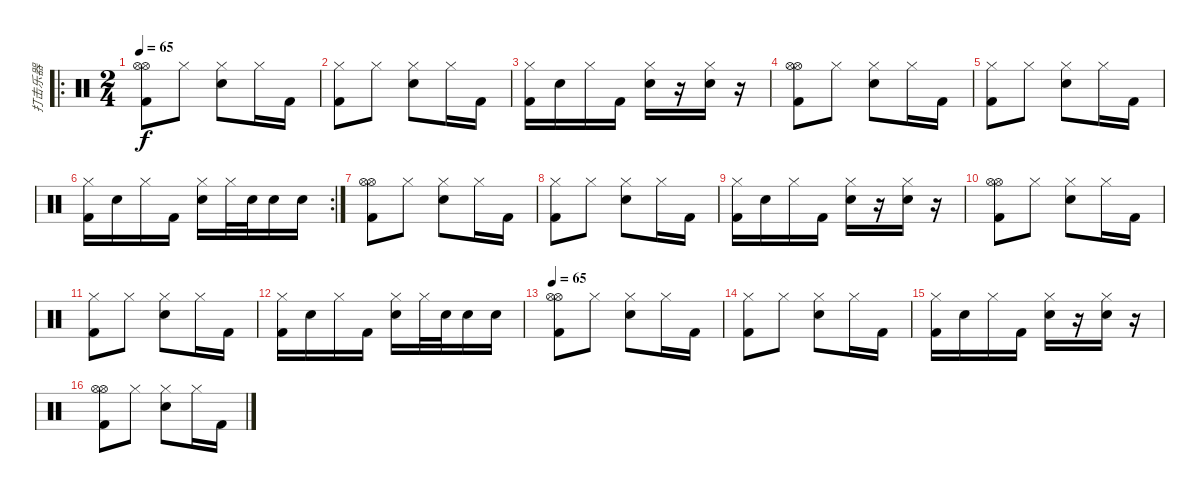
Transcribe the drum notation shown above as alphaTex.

\track ("打击乐器" "打击乐器") {instrument percussion}
\staff {score}
\articulation defaults
\ro
\ts (2 4)
\tempo 65
\clef neutral
\ks c
("Hi-Hat (open)" "Hi-Hat (open)" "Kick (hit) 2").8{dy f} "Hi-Hat (closed)".8 ("Hi-Hat (closed)" "Snare (hit) 2").8 "Hi-Hat (closed)".16 "Kick (hit) 2".16 |
("Hi-Hat (closed)" "Kick (hit) 2").8 "Hi-Hat (closed)".8 ("Hi-Hat (closed)" "Snare (hit) 2").8 "Hi-Hat (closed)".16 "Kick (hit) 2".16 |
("Hi-Hat (closed)" "Kick (hit) 2").16 "Snare (hit) 2".16 "Hi-Hat (closed)".16 "Kick (hit) 2".16 ("Hi-Hat (closed)" "Snare (hit) 2").16 r.16 ("Hi-Hat (closed)" "Snare (hit) 2").16 r.16 |
("Hi-Hat (open)" "Hi-Hat (open)" "Kick (hit) 2").8 "Hi-Hat (closed)".8 ("Hi-Hat (closed)" "Snare (hit) 2").8 "Hi-Hat (closed)".16 "Kick (hit) 2".16 |
("Hi-Hat (closed)" "Kick (hit) 2").8 "Hi-Hat (closed)".8 ("Hi-Hat (closed)" "Snare (hit) 2").8 "Hi-Hat (closed)".16 "Kick (hit) 2".16 |
\rc 2
("Hi-Hat (closed)" "Kick (hit) 2").16 "Snare (hit) 2".16 "Hi-Hat (closed)".16 "Kick (hit) 2".16 ("Hi-Hat (closed)" "Snare (hit) 2").16 "Hi-Hat (closed)".32 "Snare (hit) 2".32 "Snare (hit) 2".16 "Snare (hit) 2".16 |
("Hi-Hat (open)" "Hi-Hat (open)" "Kick (hit) 2").8 "Hi-Hat (closed)".8 ("Hi-Hat (closed)" "Snare (hit) 2").8 "Hi-Hat (closed)".16 "Kick (hit) 2".16 |
("Hi-Hat (closed)" "Kick (hit) 2").8 "Hi-Hat (closed)".8 ("Hi-Hat (closed)" "Snare (hit) 2").8 "Hi-Hat (closed)".16 "Kick (hit) 2".16 |
("Hi-Hat (closed)" "Kick (hit) 2").16 "Snare (hit) 2".16 "Hi-Hat (closed)".16 "Kick (hit) 2".16 ("Hi-Hat (closed)" "Snare (hit) 2").16 r.16 ("Hi-Hat (closed)" "Snare (hit) 2").16 r.16 |
("Hi-Hat (open)" "Hi-Hat (open)" "Kick (hit) 2").8 "Hi-Hat (closed)".8 ("Hi-Hat (closed)" "Snare (hit) 2").8 "Hi-Hat (closed)".16 "Kick (hit) 2".16 |
("Hi-Hat (closed)" "Kick (hit) 2").8 "Hi-Hat (closed)".8 ("Hi-Hat (closed)" "Snare (hit) 2").8 "Hi-Hat (closed)".16 "Kick (hit) 2".16 |
("Hi-Hat (closed)" "Kick (hit) 2").16 "Snare (hit) 2".16 "Hi-Hat (closed)".16 "Kick (hit) 2".16 ("Hi-Hat (closed)" "Snare (hit) 2").16 "Hi-Hat (closed)".32 "Snare (hit) 2".32 "Snare (hit) 2".16 "Snare (hit) 2".16 |
\tempo 65
("Hi-Hat (open)" "Hi-Hat (open)" "Kick (hit) 2").8 "Hi-Hat (closed)".8 ("Hi-Hat (closed)" "Snare (hit) 2").8 "Hi-Hat (closed)".16 "Kick (hit) 2".16 |
("Hi-Hat (closed)" "Kick (hit) 2").8 "Hi-Hat (closed)".8 ("Hi-Hat (closed)" "Snare (hit) 2").8 "Hi-Hat (closed)".16 "Kick (hit) 2".16 |
("Hi-Hat (closed)" "Kick (hit) 2").16 "Snare (hit) 2".16 "Hi-Hat (closed)".16 "Kick (hit) 2".16 ("Hi-Hat (closed)" "Snare (hit) 2").16 r.16 ("Hi-Hat (closed)" "Snare (hit) 2").16 r.16 |
("Hi-Hat (open)" "Hi-Hat (open)" "Kick (hit) 2").8 "Hi-Hat (closed)".8 ("Hi-Hat (closed)" "Snare (hit) 2").8 "Hi-Hat (closed)".16 "Kick (hit) 2".16
